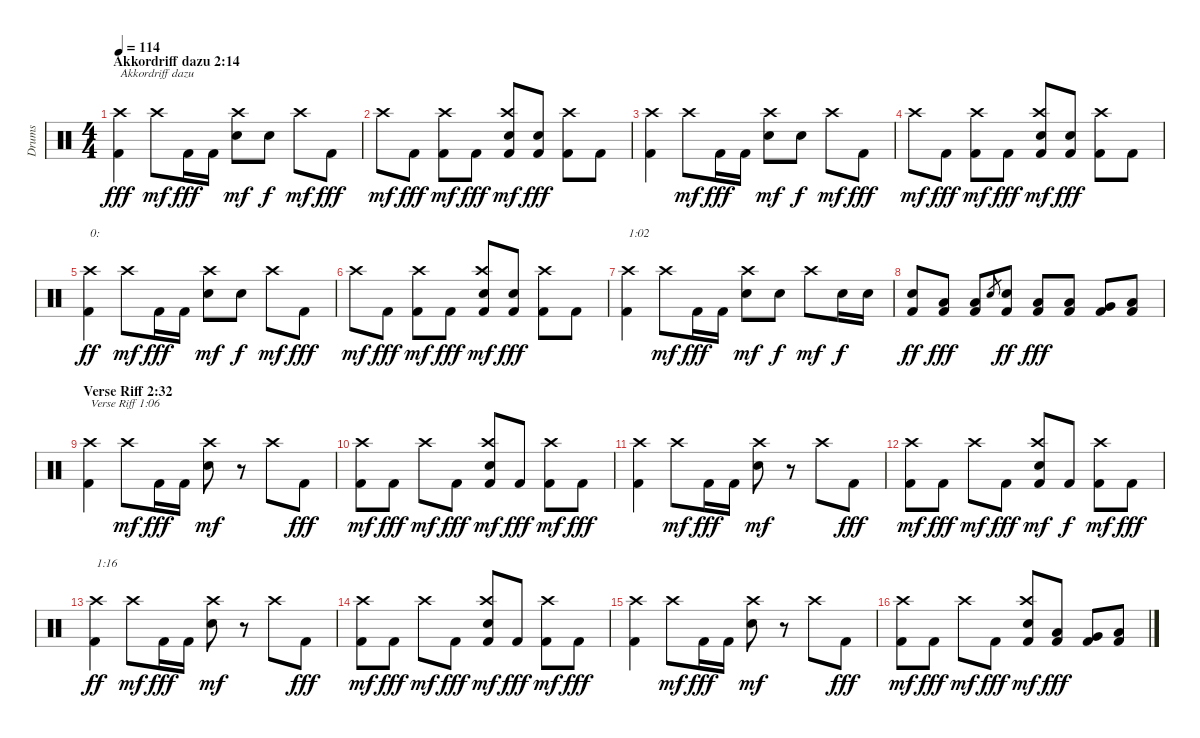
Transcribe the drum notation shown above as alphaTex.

\track ("Drums" "Drums") {instrument percussion}
\staff {score}
\articulation defaults
\ts (4 4)
\section ("" "Akkordriff dazu 2:14")
\tempo 114
\clef neutral
\ks c
("Kick (hit) 2" "Crash high (hit)").4{txt "Akkordriff dazu" dy fff} "Crash high (hit)".8{dy mf} "Kick (hit) 2".16{dy fff} "Kick (hit) 2".16 ("Electric Snare (hit)" "Crash high (hit)").8{dy mf} "Electric Snare (hit)".8{dy f} "Crash high (hit)".8{dy mf} "Kick (hit) 2".8{dy fff} |
"Crash high (hit)".8{dy mf} "Kick (hit) 2".8{dy fff} ("Kick (hit) 2" "Crash high (hit)").8{dy mf} "Kick (hit) 2".8{dy fff} ("Kick (hit) 2" "Electric Snare (hit)" "Crash high (hit)").8{dy mf} ("Kick (hit) 2" "Electric Snare (hit)").8{dy fff} ("Kick (hit) 2" "Crash high (hit)").8 "Kick (hit) 2".8 |
("Kick (hit) 2" "Crash high (hit)").4 "Crash high (hit)".8{dy mf} "Kick (hit) 2".16{dy fff} "Kick (hit) 2".16 ("Electric Snare (hit)" "Crash high (hit)").8{dy mf} "Electric Snare (hit)".8{dy f} "Crash high (hit)".8{dy mf} "Kick (hit) 2".8{dy fff} |
"Crash high (hit)".8{dy mf} "Kick (hit) 2".8{dy fff} ("Kick (hit) 2" "Crash high (hit)").8{dy mf} "Kick (hit) 2".8{dy fff} ("Kick (hit) 2" "Electric Snare (hit)" "Crash high (hit)").8{dy mf} ("Kick (hit) 2" "Electric Snare (hit)").8{dy fff} ("Kick (hit) 2" "Crash high (hit)").8 "Kick (hit) 2".8 |
("Kick (hit) 2" "Crash high (hit)").4{txt "0:" dy ff} "Crash high (hit)".8{dy mf} "Kick (hit) 2".16{dy fff} "Kick (hit) 2".16 ("Electric Snare (hit)" "Crash high (hit)").8{dy mf} "Electric Snare (hit)".8{dy f} "Crash high (hit)".8{dy mf} "Kick (hit) 2".8{dy fff} |
"Crash high (hit)".8{dy mf} "Kick (hit) 2".8{dy fff} ("Kick (hit) 2" "Crash high (hit)").8{dy mf} "Kick (hit) 2".8{dy fff} ("Kick (hit) 2" "Electric Snare (hit)" "Crash high (hit)").8{dy mf} ("Kick (hit) 2" "Electric Snare (hit)").8{dy fff} ("Kick (hit) 2" "Crash high (hit)").8 "Kick (hit) 2".8 |
("Kick (hit) 2" "Crash high (hit)").4{txt "1:02"} "Crash high (hit)".8{dy mf} "Kick (hit) 2".16{dy fff} "Kick (hit) 2".16 ("Electric Snare (hit)" "Crash high (hit)").8{dy mf} "Electric Snare (hit)".8{dy f} "Crash high (hit)".8{dy mf} "Electric Snare (hit)".16{dy f} "Electric Snare (hit)".16 |
("Kick (hit) 2" "Electric Snare (hit)").8{dy ff} ("Kick (hit) 2" "Low Tom (hit)").8{dy fff} ("Kick (hit) 2" "Low Tom (hit)").8 "Electric Snare (hit)".8{gr} ("Kick (hit) 2" "Electric Snare (hit)").8{dy ff} ("Kick (hit) 2" "Low Tom (hit)").8{dy fff} ("Kick (hit) 2" "Low Tom (hit)").8 ("Kick (hit) 2" "Very Low Tom (hit)").8 ("Kick (hit) 2" "Low Floor Tom (hit)").8 |
\section ("" "Verse Riff 2:32")
("Kick (hit) 2" "Crash high (hit)").4{txt "Verse Riff 1:06"} "Crash high (hit)".8{dy mf} "Kick (hit) 2".16{dy fff} "Kick (hit) 2".16 ("Electric Snare (hit)" "Crash high (hit)").8{dy mf} r.8 "Crash high (hit)".8 "Kick (hit) 2".8{dy fff} |
("Kick (hit) 2" "Crash high (hit)").8{dy mf} "Kick (hit) 2".8{dy fff} "Crash high (hit)".8{dy mf} "Kick (hit) 2".8{dy fff} ("Kick (hit) 2" "Electric Snare (hit)" "Crash high (hit)").8{dy mf} "Kick (hit) 2".8{dy fff} ("Kick (hit) 2" "Crash high (hit)").8{dy mf} "Kick (hit) 2".8{dy fff} |
("Kick (hit) 2" "Crash high (hit)").4 "Crash high (hit)".8{dy mf} "Kick (hit) 2".16{dy fff} "Kick (hit) 2".16 ("Electric Snare (hit)" "Crash high (hit)").8{dy mf} r.8 "Crash high (hit)".8 "Kick (hit) 2".8{dy fff} |
("Kick (hit) 2" "Crash high (hit)").8{dy mf} "Kick (hit) 2".8{dy fff} "Crash high (hit)".8{dy mf} "Kick (hit) 2".8{dy fff} ("Kick (hit) 2" "Electric Snare (hit)" "Crash high (hit)").8{dy mf} "Kick (hit) 2".8{dy f} ("Kick (hit) 2" "Crash high (hit)").8{dy mf} "Kick (hit) 2".8{dy fff} |
("Kick (hit) 2" "Crash high (hit)").4{txt "1:16" dy ff} "Crash high (hit)".8{dy mf} "Kick (hit) 2".16{dy fff} "Kick (hit) 2".16 ("Electric Snare (hit)" "Crash high (hit)").8{dy mf} r.8 "Crash high (hit)".8 "Kick (hit) 2".8{dy fff} |
("Kick (hit) 2" "Crash high (hit)").8{dy mf} "Kick (hit) 2".8{dy fff} "Crash high (hit)".8{dy mf} "Kick (hit) 2".8{dy fff} ("Kick (hit) 2" "Electric Snare (hit)" "Crash high (hit)").8{dy mf} "Kick (hit) 2".8{dy fff} ("Kick (hit) 2" "Crash high (hit)").8{dy mf} "Kick (hit) 2".8{dy fff} |
("Kick (hit) 2" "Crash high (hit)").4 "Crash high (hit)".8{dy mf} "Kick (hit) 2".16{dy fff} "Kick (hit) 2".16 ("Electric Snare (hit)" "Crash high (hit)").8{dy mf} r.8 "Crash high (hit)".8 "Kick (hit) 2".8{dy fff} |
("Kick (hit) 2" "Crash high (hit)").8{dy mf} "Kick (hit) 2".8{dy fff} "Crash high (hit)".8{dy mf} "Kick (hit) 2".8{dy fff} ("Kick (hit) 2" "Electric Snare (hit)" "Crash high (hit)").8{dy mf} ("Kick (hit) 2" "Low Tom (hit)").8{dy fff} ("Kick (hit) 2" "Very Low Tom (hit)").8 ("Kick (hit) 2" "Low Floor Tom (hit)").8
